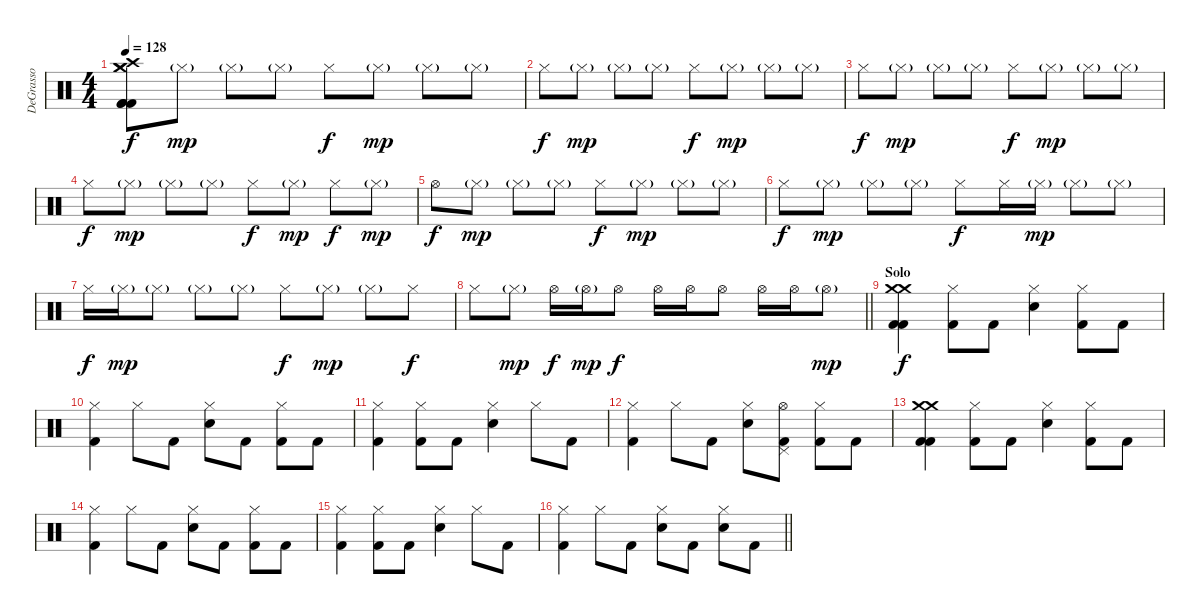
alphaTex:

\track ("DeGrasso" "DeGrasso") {instrument percussion}
\staff {score}
\articulation defaults
\ts (4 4)
\tempo 128
\clef neutral
\ks c
("Crash medium (hit)" "Crash medium (hit)" "Crash high (hit)" "Kick (hit) 2" "Kick (hit) 2" "Kick (hit) 2").8{dy f} "Hi-Hat (closed)"{g}.8{dy mp} "Hi-Hat (closed)"{g}.8 "Hi-Hat (closed)"{g}.8 "Hi-Hat (closed)".8{dy f} "Hi-Hat (closed)"{g}.8{dy mp} "Hi-Hat (closed)"{g}.8 "Hi-Hat (closed)"{g}.8 |
"Hi-Hat (closed)".8{dy f} "Hi-Hat (closed)"{g}.8{dy mp} "Hi-Hat (closed)"{g}.8 "Hi-Hat (closed)"{g}.8 "Hi-Hat (closed)".8{dy f} "Hi-Hat (closed)"{g}.8{dy mp} "Hi-Hat (closed)"{g}.8 "Hi-Hat (closed)"{g}.8 |
"Hi-Hat (closed)".8{dy f} "Hi-Hat (closed)"{g}.8{dy mp} "Hi-Hat (closed)"{g}.8 "Hi-Hat (closed)"{g}.8 "Hi-Hat (closed)".8{dy f} "Hi-Hat (closed)"{g}.8{dy mp} "Hi-Hat (closed)"{g}.8 "Hi-Hat (closed)"{g}.8 |
"Hi-Hat (closed)".8{dy f} "Hi-Hat (closed)"{g}.8{dy mp} "Hi-Hat (closed)"{g}.8 "Hi-Hat (closed)"{g}.8 "Hi-Hat (closed)".8{dy f} "Hi-Hat (closed)"{g}.8{dy mp} "Hi-Hat (closed)".8{dy f} "Hi-Hat (closed)"{g}.8{dy mp} |
"Hi-Hat (open)".8{dy f} "Hi-Hat (closed)"{g}.8{dy mp} "Hi-Hat (closed)"{g}.8 "Hi-Hat (closed)"{g}.8 "Hi-Hat (closed)".8{dy f} "Hi-Hat (closed)"{g}.8{dy mp} "Hi-Hat (closed)"{g}.8 "Hi-Hat (closed)"{g}.8 |
"Hi-Hat (closed)".8{dy f} "Hi-Hat (closed)"{g}.8{dy mp} "Hi-Hat (closed)"{g}.8 "Hi-Hat (closed)"{g}.8 "Hi-Hat (closed)".8{dy f} "Hi-Hat (closed)".16 "Hi-Hat (closed)"{g}.16{dy mp} "Hi-Hat (closed)"{g}.8 "Hi-Hat (closed)"{g}.8 |
"Hi-Hat (closed)".16{dy f} "Hi-Hat (closed)"{g}.16{dy mp} "Hi-Hat (closed)"{g}.8 "Hi-Hat (closed)"{g}.8 "Hi-Hat (closed)"{g}.8 "Hi-Hat (closed)".8{dy f} "Hi-Hat (closed)"{g}.8{dy mp} "Hi-Hat (closed)"{g}.8 "Hi-Hat (closed)".8{dy f} |
\barLineRight lightlight "Hi-Hat (closed)".8 "Hi-Hat (closed)"{g}.8{dy mp} "Hi-Hat (open)".16{dy f} "Hi-Hat (open)"{g}.16{dy mp} "Hi-Hat (open)".8{dy f} "Hi-Hat (open)".16 "Hi-Hat (open)".16 "Hi-Hat (open)".8 "Hi-Hat (open)".16 "Hi-Hat (open)".16 "Hi-Hat (open)"{g}.8{dy mp}
|
\section ("" "Solo")
("Crash medium (hit)" "Crash medium (hit)" "Kick (hit) 2" "Kick (hit) 2").4{dy f} ("Hi-Hat (closed)" "Kick (hit) 2").8 "Kick (hit) 2".8 ("Hi-Hat (closed)" "Electric Snare (hit)").4 ("Hi-Hat (closed)" "Kick (hit) 2").8 "Kick (hit) 2".8 |
("Hi-Hat (closed)" "Kick (hit) 2").4 "Hi-Hat (closed)".8 "Kick (hit) 2".8 ("Hi-Hat (closed)" "Electric Snare (hit)").8 "Kick (hit) 2".8 ("Hi-Hat (closed)" "Kick (hit) 2").8 "Kick (hit) 2".8 |
("Hi-Hat (closed)" "Kick (hit) 2").4 ("Hi-Hat (closed)" "Kick (hit) 2").8 "Kick (hit) 2".8 ("Hi-Hat (closed)" "Electric Snare (hit)").4 "Hi-Hat (closed)".8 "Kick (hit) 2".8 |
("Hi-Hat (closed)" "Kick (hit) 2").4 "Hi-Hat (closed)".8 "Kick (hit) 2".8 ("Hi-Hat (closed)" "Electric Snare (hit)").8 ("Pedal Hi-Hat (hit)" "Hi-Hat (open)" "Kick (hit) 2").8 ("Hi-Hat (closed)" "Kick (hit) 2").8 "Kick (hit) 2".8 |
("Crash medium (hit)" "Crash medium (hit)" "Kick (hit) 2" "Kick (hit) 2").4 ("Hi-Hat (closed)" "Kick (hit) 2").8 "Kick (hit) 2".8 ("Hi-Hat (closed)" "Electric Snare (hit)").4 ("Hi-Hat (closed)" "Kick (hit) 2").8 "Kick (hit) 2".8 |
("Hi-Hat (closed)" "Kick (hit) 2").4 "Hi-Hat (closed)".8 "Kick (hit) 2".8 ("Hi-Hat (closed)" "Electric Snare (hit)").8 "Kick (hit) 2".8 ("Hi-Hat (closed)" "Kick (hit) 2").8 "Kick (hit) 2".8 |
("Hi-Hat (closed)" "Kick (hit) 2").4 ("Hi-Hat (closed)" "Kick (hit) 2").8 "Kick (hit) 2".8 ("Hi-Hat (closed)" "Electric Snare (hit)").4 "Hi-Hat (closed)".8 "Kick (hit) 2".8 |
\barLineRight lightlight
("Hi-Hat (closed)" "Kick (hit) 2").4 "Hi-Hat (closed)".8 "Kick (hit) 2".8 ("Hi-Hat (closed)" "Electric Snare (hit)").8 "Kick (hit) 2".8 ("Hi-Hat (closed)" "Electric Snare (hit)").8 "Kick (hit) 2".8
